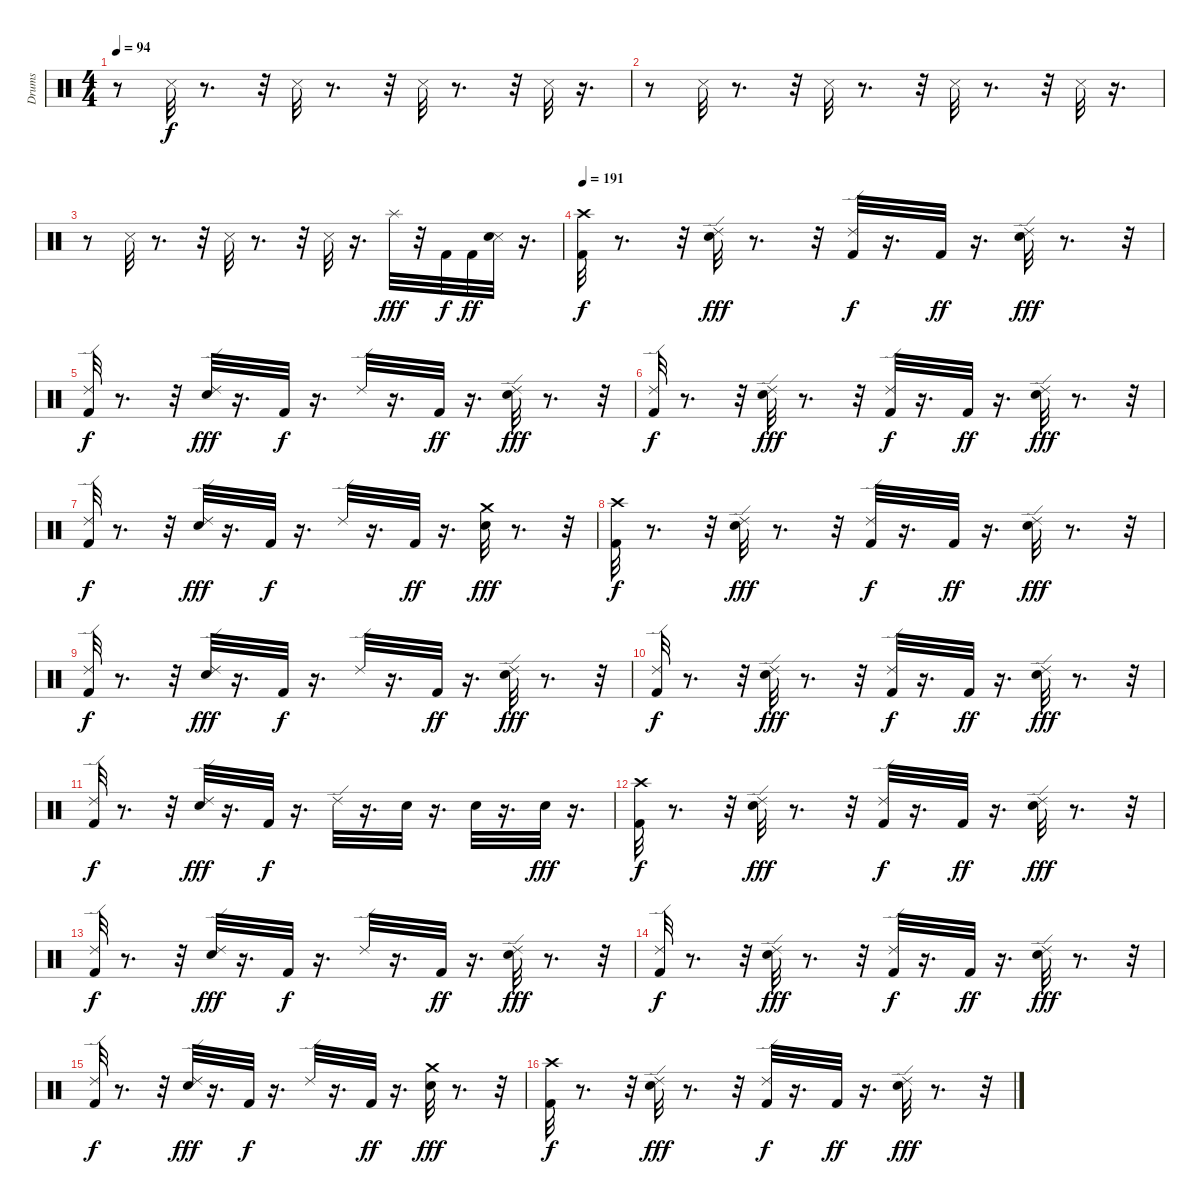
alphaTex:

\track ("Drums" "Drums") {instrument percussion}
\staff {score}
\articulation defaults
\ts (4 4)
\tempo 94
\clef neutral
\ks c
r.8{dy f} "Snare (side stick) 3".32 r.8{d} r.32 "Snare (side stick) 3".32 r.8{d} r.32 "Snare (side stick) 3".32 r.8{d} r.32 "Snare (side stick) 3".32 r.16{d} |
r.8 "Snare (side stick) 3".32 r.8{d} r.32 "Snare (side stick) 3".32 r.8{d} r.32 "Snare (side stick) 3".32 r.8{d} r.32 "Snare (side stick) 3".32 r.16{d} |
r.8 "Snare (side stick) 3".32 r.8{d} r.32 "Snare (side stick) 3".32 r.8{d} r.32 "Snare (side stick) 3".32 r.16{d} "Splash (hit)".32{dy fff} r.32 "Kick (hit) 2".32{dy f} "Kick (hit) 2".32{dy ff} ("Snare (side stick) 3" "Snare (hit) 2").32 r.16{d} |
\tempo 191
("Crash high (hit)" "Kick (hit) 2").32{dy f} r.8{d} r.32 ("Snare (hit) 2" "Ride (edge) 2").32{dy fff} r.8{d} r.32 ("Kick (hit) 2" "Ride (edge) 2").32{dy f} r.16{d} "Kick (hit) 2".32{dy ff} r.16{d} ("Snare (hit) 2" "Ride (edge) 2").32{dy fff} r.8{d} r.32 |
("Kick (hit) 2" "Ride (edge) 2").32{dy f} r.8{d} r.32 ("Snare (hit) 2" "Ride (edge) 2").32{dy fff} r.16{d} "Kick (hit) 2".32{dy f} r.16{d} "Ride (edge) 2".32 r.16{d} "Kick (hit) 2".32{dy ff} r.16{d} ("Snare (hit) 2" "Ride (edge) 2").32{dy fff} r.8{d} r.32 |
("Kick (hit) 2" "Ride (edge) 2").32{dy f} r.8{d} r.32 ("Snare (hit) 2" "Ride (edge) 2").32{dy fff} r.8{d} r.32 ("Kick (hit) 2" "Ride (edge) 2").32{dy f} r.16{d} "Kick (hit) 2".32{dy ff} r.16{d} ("Snare (hit) 2" "Ride (edge) 2").32{dy fff} r.8{d} r.32 |
("Kick (hit) 2" "Ride (edge) 2").32{dy f} r.8{d} r.32 ("Snare (hit) 2" "Ride (edge) 2").32{dy fff} r.16{d} "Kick (hit) 2".32{dy f} r.16{d} "Ride (edge) 2".32 r.16{d} "Kick (hit) 2".32{dy ff} r.16{d} ("Snare (hit) 2" "Crash medium (hit)").32{dy fff} r.8{d} r.32 |
("Crash high (hit)" "Kick (hit) 2").32{dy f} r.8{d} r.32 ("Snare (hit) 2" "Ride (edge) 2").32{dy fff} r.8{d} r.32 ("Kick (hit) 2" "Ride (edge) 2").32{dy f} r.16{d} "Kick (hit) 2".32{dy ff} r.16{d} ("Snare (hit) 2" "Ride (edge) 2").32{dy fff} r.8{d} r.32 |
("Kick (hit) 2" "Ride (edge) 2").32{dy f} r.8{d} r.32 ("Snare (hit) 2" "Ride (edge) 2").32{dy fff} r.16{d} "Kick (hit) 2".32{dy f} r.16{d} "Ride (edge) 2".32 r.16{d} "Kick (hit) 2".32{dy ff} r.16{d} ("Snare (hit) 2" "Ride (edge) 2").32{dy fff} r.8{d} r.32 |
("Kick (hit) 2" "Ride (edge) 2").32{dy f} r.8{d} r.32 ("Snare (hit) 2" "Ride (edge) 2").32{dy fff} r.8{d} r.32 ("Kick (hit) 2" "Ride (edge) 2").32{dy f} r.16{d} "Kick (hit) 2".32{dy ff} r.16{d} ("Snare (hit) 2" "Ride (edge) 2").32{dy fff} r.8{d} r.32 |
("Kick (hit) 2" "Ride (edge) 2").32{dy f} r.8{d} r.32 ("Snare (hit) 2" "Ride (edge) 2").32{dy fff} r.16{d} "Kick (hit) 2".32{dy f} r.16{d} "Ride (edge) 2".32 r.16{d} "Snare (hit) 2".32 r.16{d} "Snare (hit) 2".32 r.16{d} "Snare (hit) 2".32{dy fff} r.16{d} |
("Crash high (hit)" "Kick (hit) 2").32{dy f} r.8{d} r.32 ("Snare (hit) 2" "Ride (edge) 2").32{dy fff} r.8{d} r.32 ("Kick (hit) 2" "Ride (edge) 2").32{dy f} r.16{d} "Kick (hit) 2".32{dy ff} r.16{d} ("Snare (hit) 2" "Ride (edge) 2").32{dy fff} r.8{d} r.32 |
("Kick (hit) 2" "Ride (edge) 2").32{dy f} r.8{d} r.32 ("Snare (hit) 2" "Ride (edge) 2").32{dy fff} r.16{d} "Kick (hit) 2".32{dy f} r.16{d} "Ride (edge) 2".32 r.16{d} "Kick (hit) 2".32{dy ff} r.16{d} ("Snare (hit) 2" "Ride (edge) 2").32{dy fff} r.8{d} r.32 |
("Kick (hit) 2" "Ride (edge) 2").32{dy f} r.8{d} r.32 ("Snare (hit) 2" "Ride (edge) 2").32{dy fff} r.8{d} r.32 ("Kick (hit) 2" "Ride (edge) 2").32{dy f} r.16{d} "Kick (hit) 2".32{dy ff} r.16{d} ("Snare (hit) 2" "Ride (edge) 2").32{dy fff} r.8{d} r.32 |
("Kick (hit) 2" "Ride (edge) 2").32{dy f} r.8{d} r.32 ("Snare (hit) 2" "Ride (edge) 2").32{dy fff} r.16{d} "Kick (hit) 2".32{dy f} r.16{d} "Ride (edge) 2".32 r.16{d} "Kick (hit) 2".32{dy ff} r.16{d} ("Snare (hit) 2" "Crash medium (hit)").32{dy fff} r.8{d} r.32 |
("Crash high (hit)" "Kick (hit) 2").32{dy f} r.8{d} r.32 ("Snare (hit) 2" "Ride (edge) 2").32{dy fff} r.8{d} r.32 ("Kick (hit) 2" "Ride (edge) 2").32{dy f} r.16{d} "Kick (hit) 2".32{dy ff} r.16{d} ("Snare (hit) 2" "Ride (edge) 2").32{dy fff} r.8{d} r.32
